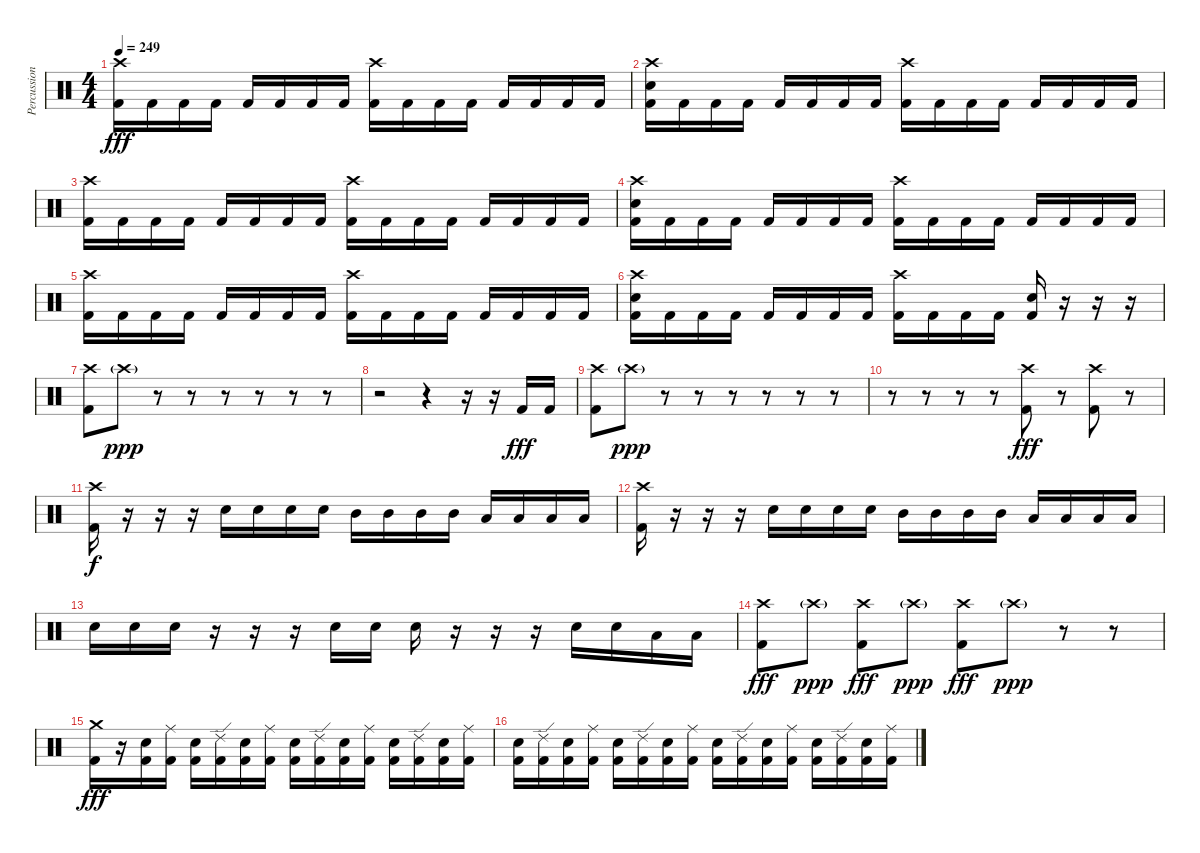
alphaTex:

\track ("Percussion" "Percussion") {instrument percussion}
\staff {score}
\articulation defaults
\ts (4 4)
\tempo 249
\clef neutral
\ks c
("Crash high (hit)" "Kick (hit) 2").16{dy fff} "Kick (hit) 2".16 "Kick (hit) 2".16 "Kick (hit) 2".16 "Kick (hit) 2".16 "Kick (hit) 2".16 "Kick (hit) 2".16 "Kick (hit) 2".16 ("Crash high (hit)" "Kick (hit) 2").16 "Kick (hit) 2".16 "Kick (hit) 2".16 "Kick (hit) 2".16 "Kick (hit) 2".16 "Kick (hit) 2".16 "Kick (hit) 2".16 "Kick (hit) 2".16 |
("Crash high (hit)" "Electric Snare (hit)" "Kick (hit) 2").16 "Kick (hit) 2".16 "Kick (hit) 2".16 "Kick (hit) 2".16 "Kick (hit) 2".16 "Kick (hit) 2".16 "Kick (hit) 2".16 "Kick (hit) 2".16 ("Crash high (hit)" "Kick (hit) 2").16 "Kick (hit) 2".16 "Kick (hit) 2".16 "Kick (hit) 2".16 "Kick (hit) 2".16 "Kick (hit) 2".16 "Kick (hit) 2".16 "Kick (hit) 2".16 |
("Crash high (hit)" "Kick (hit) 2").16 "Kick (hit) 2".16 "Kick (hit) 2".16 "Kick (hit) 2".16 "Kick (hit) 2".16 "Kick (hit) 2".16 "Kick (hit) 2".16 "Kick (hit) 2".16 ("Crash high (hit)" "Kick (hit) 2").16 "Kick (hit) 2".16 "Kick (hit) 2".16 "Kick (hit) 2".16 "Kick (hit) 2".16 "Kick (hit) 2".16 "Kick (hit) 2".16 "Kick (hit) 2".16 |
("Crash high (hit)" "Electric Snare (hit)" "Kick (hit) 2").16 "Kick (hit) 2".16 "Kick (hit) 2".16 "Kick (hit) 2".16 "Kick (hit) 2".16 "Kick (hit) 2".16 "Kick (hit) 2".16 "Kick (hit) 2".16 ("Crash high (hit)" "Kick (hit) 2").16 "Kick (hit) 2".16 "Kick (hit) 2".16 "Kick (hit) 2".16 "Kick (hit) 2".16 "Kick (hit) 2".16 "Kick (hit) 2".16 "Kick (hit) 2".16 |
("Crash high (hit)" "Kick (hit) 2").16 "Kick (hit) 2".16 "Kick (hit) 2".16 "Kick (hit) 2".16 "Kick (hit) 2".16 "Kick (hit) 2".16 "Kick (hit) 2".16 "Kick (hit) 2".16 ("Crash high (hit)" "Kick (hit) 2").16 "Kick (hit) 2".16 "Kick (hit) 2".16 "Kick (hit) 2".16 "Kick (hit) 2".16 "Kick (hit) 2".16 "Kick (hit) 2".16 "Kick (hit) 2".16 |
("Crash high (hit)" "Electric Snare (hit)" "Kick (hit) 2").16 "Kick (hit) 2".16 "Kick (hit) 2".16 "Kick (hit) 2".16 "Kick (hit) 2".16 "Kick (hit) 2".16 "Kick (hit) 2".16 "Kick (hit) 2".16 ("Crash high (hit)" "Kick (hit) 2").16 "Kick (hit) 2".16 "Kick (hit) 2".16 "Kick (hit) 2".16 ("Electric Snare (hit)" "Kick (hit) 2").16 r.16 r.16 r.16 |
("Crash high (hit)" "Kick (hit) 2").8 "Crash high (hit)"{g}.8{dy ppp} r.8 r.8 r.8 r.8 r.8 r.8 |
r.2 r.4 r.16 r.16 "Kick (hit) 2".16{dy fff} "Kick (hit) 2".16 |
("Crash high (hit)" "Kick (hit) 2").8 "Crash high (hit)"{g}.8{dy ppp} r.8 r.8 r.8 r.8 r.8 r.8 |
r.8 r.8 r.8 r.8 ("Crash high (hit)" "Kick (hit) 2").8{dy fff} r.8 ("Crash high (hit)" "Kick (hit) 2").8 r.8 |
("Crash high (hit)" "Kick (hit) 2").16{dy f} r.16 r.16 r.16 "Electric Snare (hit)".16 "Electric Snare (hit)".16 "Electric Snare (hit)".16 "Electric Snare (hit)".16 "Mid Tom (hit)".16 "Mid Tom (hit)".16 "Mid Tom (hit)".16 "Mid Tom (hit)".16 "Low Tom (hit)".16 "Low Tom (hit)".16 "Low Tom (hit)".16 "Low Tom (hit)".16 |
("Crash high (hit)" "Kick (hit) 2").16 r.16 r.16 r.16 "Electric Snare (hit)".16 "Electric Snare (hit)".16 "Electric Snare (hit)".16 "Electric Snare (hit)".16 "Mid Tom (hit)".16 "Mid Tom (hit)".16 "Mid Tom (hit)".16 "Mid Tom (hit)".16 "Low Tom (hit)".16 "Low Tom (hit)".16 "Low Tom (hit)".16 "Low Tom (hit)".16 |
"Electric Snare (hit)".16 "Electric Snare (hit)".16 "Electric Snare (hit)".16 r.16 r.16 r.16 "Electric Snare (hit)".16 "Electric Snare (hit)".16 "Electric Snare (hit)".16 r.16 r.16 r.16 "Electric Snare (hit)".16 "Electric Snare (hit)".16 "Low Tom (hit)".16 "Low Tom (hit)".16 |
("Crash high (hit)" "Kick (hit) 2").8{dy fff} "Crash high (hit)"{g}.8{dy ppp} ("Crash high (hit)" "Kick (hit) 2").8{dy fff} "Crash high (hit)"{g}.8{dy ppp} ("Crash high (hit)" "Kick (hit) 2").8{dy fff} "Crash high (hit)"{g}.8{dy ppp} r.8 r.8 |
("Crash medium (hit)" "Kick (hit) 2").16{dy fff} r.16 ("Electric Snare (hit)" "Kick (hit) 2").16 ("Ride (middle)" "Kick (hit) 2").16 ("Electric Snare (hit)" "Kick (hit) 2").16 ("Ride (edge) 2" "Kick (hit) 2").16 ("Electric Snare (hit)" "Kick (hit) 2").16 ("Ride (middle)" "Kick (hit) 2").16 ("Electric Snare (hit)" "Kick (hit) 2").16 ("Ride (edge) 2" "Kick (hit) 2").16 ("Electric Snare (hit)" "Kick (hit) 2").16 ("Ride (middle)" "Kick (hit) 2").16 ("Electric Snare (hit)" "Kick (hit) 2").16 ("Ride (edge) 2" "Kick (hit) 2").16 ("Electric Snare (hit)" "Kick (hit) 2").16 ("Ride (middle)" "Kick (hit) 2").16 |
("Electric Snare (hit)" "Kick (hit) 2").16 ("Ride (edge) 2" "Kick (hit) 2").16 ("Electric Snare (hit)" "Kick (hit) 2").16 ("Ride (middle)" "Kick (hit) 2").16 ("Electric Snare (hit)" "Kick (hit) 2").16 ("Ride (edge) 2" "Kick (hit) 2").16 ("Electric Snare (hit)" "Kick (hit) 2").16 ("Ride (middle)" "Kick (hit) 2").16 ("Electric Snare (hit)" "Kick (hit) 2").16 ("Ride (edge) 2" "Kick (hit) 2").16 ("Electric Snare (hit)" "Kick (hit) 2").16 ("Ride (middle)" "Kick (hit) 2").16 ("Electric Snare (hit)" "Kick (hit) 2").16 ("Ride (edge) 2" "Kick (hit) 2").16 ("Electric Snare (hit)" "Kick (hit) 2").16 ("Ride (middle)" "Kick (hit) 2").16
